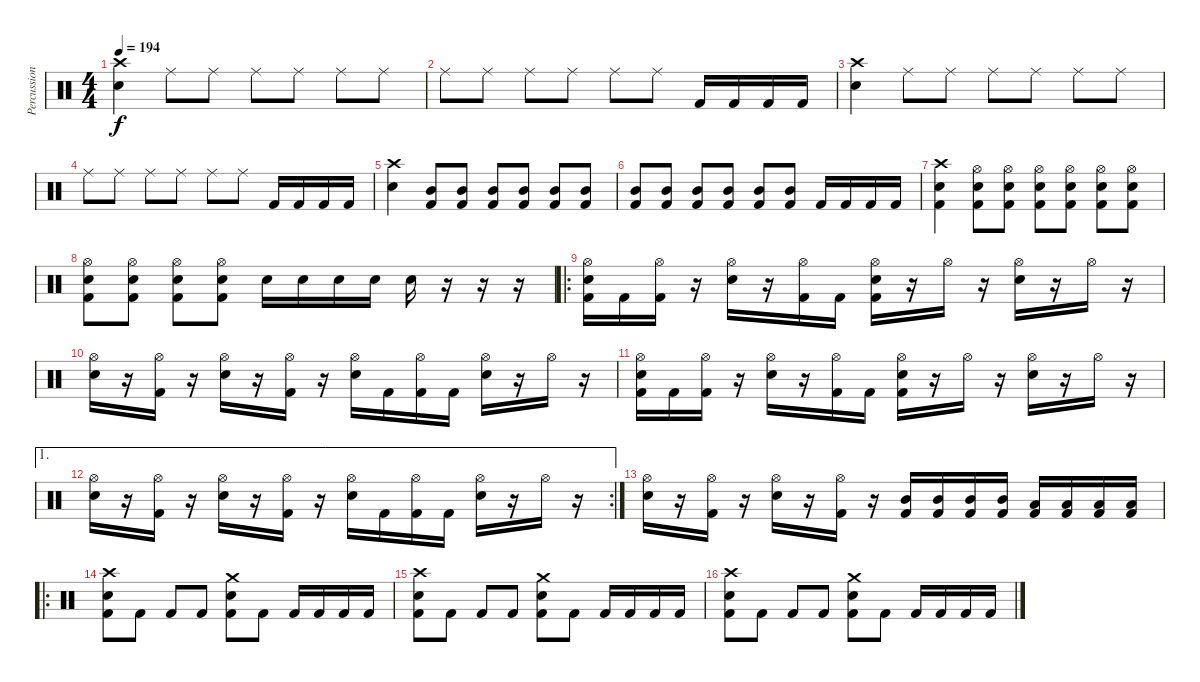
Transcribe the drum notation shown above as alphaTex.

\track ("Percussions" "Percussion") {instrument percussion}
\staff {score}
\articulation defaults
\ts (4 4)
\tempo 194
\clef neutral
\ks c
("Crash high (hit)" "Electric Snare (hit)").4{dy f} "Ride (middle)".8 "Ride (middle)".8 "Ride (middle)".8 "Ride (middle)".8 "Ride (middle)".8 "Ride (middle)".8 |
"Ride (middle)".8 "Ride (middle)".8 "Ride (middle)".8 "Ride (middle)".8 "Ride (middle)".8 "Ride (middle)".8 "Kick (hit) 2".16 "Kick (hit) 2".16 "Kick (hit) 2".16 "Kick (hit) 2".16 |
("Crash high (hit)" "Snare (hit) 2").4 "Ride (middle)".8 "Ride (middle)".8 "Ride (middle)".8 "Ride (middle)".8 "Ride (middle)".8 "Ride (middle)".8 |
"Ride (middle)".8 "Ride (middle)".8 "Ride (middle)".8 "Ride (middle)".8 "Ride (middle)".8 "Ride (middle)".8 "Kick (hit) 2".16 "Kick (hit) 2".16 "Kick (hit) 2".16 "Kick (hit) 2".16 |
("Crash high (hit)" "Electric Snare (hit)").4 ("Mid Tom (hit)" "Kick (hit) 2").8 ("Mid Tom (hit)" "Kick (hit) 2").8 ("Mid Tom (hit)" "Kick (hit) 2").8 ("Mid Tom (hit)" "Kick (hit) 2").8 ("Mid Tom (hit)" "Kick (hit) 2").8 ("Mid Tom (hit)" "Kick (hit) 2").8 |
("Mid Tom (hit)" "Kick (hit) 2").8 ("Mid Tom (hit)" "Kick (hit) 2").8 ("Mid Tom (hit)" "Kick (hit) 2").8 ("Mid Tom (hit)" "Kick (hit) 2").8 ("Mid Tom (hit)" "Kick (hit) 2").8 ("Mid Tom (hit)" "Kick (hit) 2").8 "Kick (hit) 2".16 "Kick (hit) 2".16 "Kick (hit) 2".16 "Kick (hit) 2".16 |
("Crash high (hit)" "Snare (hit) 2" "Kick (hit) 2").4 ("Hi-Hat (open)" "Snare (hit) 2" "Kick (hit) 2").8 ("Hi-Hat (open)" "Snare (hit) 2" "Kick (hit) 2").8 ("Hi-Hat (open)" "Snare (hit) 2" "Kick (hit) 2").8 ("Hi-Hat (open)" "Snare (hit) 2" "Kick (hit) 2").8 ("Hi-Hat (open)" "Snare (hit) 2" "Kick (hit) 2").8 ("Hi-Hat (open)" "Snare (hit) 2" "Kick (hit) 2").8 |
("Hi-Hat (open)" "Snare (hit) 2" "Kick (hit) 2").8 ("Hi-Hat (open)" "Snare (hit) 2" "Kick (hit) 2").8 ("Hi-Hat (open)" "Snare (hit) 2" "Kick (hit) 2").8 ("Hi-Hat (open)" "Snare (hit) 2" "Kick (hit) 2").8 "Snare (hit) 2".16 "Snare (hit) 2".16 "Snare (hit) 2".16 "Snare (hit) 2".16 "Snare (hit) 2".16 r.16 r.16 r.16 |
\ro
("Hi-Hat (open)" "Electric Snare (hit)" "Kick (hit) 2").16 "Kick (hit) 2".16 ("Hi-Hat (open)" "Kick (hit) 2").16 r.16 ("Hi-Hat (open)" "Electric Snare (hit)").16 r.16 ("Hi-Hat (open)" "Kick (hit) 2").16 "Kick (hit) 2".16 ("Hi-Hat (open)" "Electric Snare (hit)" "Kick (hit) 2").16 r.16 "Hi-Hat (open)".16 r.16 ("Hi-Hat (open)" "Electric Snare (hit)").16 r.16 "Hi-Hat (open)".16 r.16 |
("Hi-Hat (open)" "Electric Snare (hit)").16 r.16 ("Hi-Hat (open)" "Kick (hit) 2").16 r.16 ("Hi-Hat (open)" "Electric Snare (hit)").16 r.16 ("Hi-Hat (open)" "Kick (hit) 2").16 r.16 ("Hi-Hat (open)" "Electric Snare (hit)").16 "Kick (hit) 2".16 ("Hi-Hat (open)" "Kick (hit) 2").16 "Kick (hit) 2".16 ("Hi-Hat (open)" "Electric Snare (hit)").16 r.16 "Hi-Hat (open)".16 r.16 |
("Hi-Hat (open)" "Electric Snare (hit)" "Kick (hit) 2").16 "Kick (hit) 2".16 ("Hi-Hat (open)" "Kick (hit) 2").16 r.16 ("Hi-Hat (open)" "Electric Snare (hit)").16 r.16 ("Hi-Hat (open)" "Kick (hit) 2").16 "Kick (hit) 2".16 ("Hi-Hat (open)" "Electric Snare (hit)" "Kick (hit) 2").16 r.16 "Hi-Hat (open)".16 r.16 ("Hi-Hat (open)" "Electric Snare (hit)").16 r.16 "Hi-Hat (open)".16 r.16 |
\ae 1
\rc 2
("Hi-Hat (open)" "Electric Snare (hit)").16 r.16 ("Hi-Hat (open)" "Kick (hit) 2").16 r.16 ("Hi-Hat (open)" "Electric Snare (hit)").16 r.16 ("Hi-Hat (open)" "Kick (hit) 2").16 r.16 ("Hi-Hat (open)" "Electric Snare (hit)").16 "Kick (hit) 2".16 ("Hi-Hat (open)" "Kick (hit) 2").16 "Kick (hit) 2".16 ("Hi-Hat (open)" "Electric Snare (hit)").16 r.16 "Hi-Hat (open)".16 r.16 |
("Hi-Hat (open)" "Electric Snare (hit)").16 r.16 ("Hi-Hat (open)" "Kick (hit) 2").16 r.16 ("Hi-Hat (open)" "Electric Snare (hit)").16 r.16 ("Hi-Hat (open)" "Kick (hit) 2").16 r.16 ("Mid Tom (hit)" "Kick (hit) 2").16 ("Mid Tom (hit)" "Kick (hit) 2").16 ("Mid Tom (hit)" "Kick (hit) 2").16 ("Mid Tom (hit)" "Kick (hit) 2").16 ("Low Tom (hit)" "Kick (hit) 2").16 ("Low Tom (hit)" "Kick (hit) 2").16 ("Low Tom (hit)" "Kick (hit) 2").16 ("Low Tom (hit)" "Kick (hit) 2").16 |
\ro
("Crash high (hit)" "Electric Snare (hit)" "Kick (hit) 2").8 "Kick (hit) 2".8 "Kick (hit) 2".8 "Kick (hit) 2".8 ("Crash medium (hit)" "Electric Snare (hit)" "Kick (hit) 2").8 "Kick (hit) 2".8 "Kick (hit) 2".16 "Kick (hit) 2".16 "Kick (hit) 2".16 "Kick (hit) 2".16 |
("Crash high (hit)" "Electric Snare (hit)" "Kick (hit) 2").8 "Kick (hit) 2".8 "Kick (hit) 2".8 "Kick (hit) 2".8 ("Crash medium (hit)" "Electric Snare (hit)" "Kick (hit) 2").8 "Kick (hit) 2".8 "Kick (hit) 2".16 "Kick (hit) 2".16 "Kick (hit) 2".16 "Kick (hit) 2".16 |
("Crash high (hit)" "Electric Snare (hit)" "Kick (hit) 2").8 "Kick (hit) 2".8 "Kick (hit) 2".8 "Kick (hit) 2".8 ("Crash medium (hit)" "Electric Snare (hit)" "Kick (hit) 2").8 "Kick (hit) 2".8 "Kick (hit) 2".16 "Kick (hit) 2".16 "Kick (hit) 2".16 "Kick (hit) 2".16
